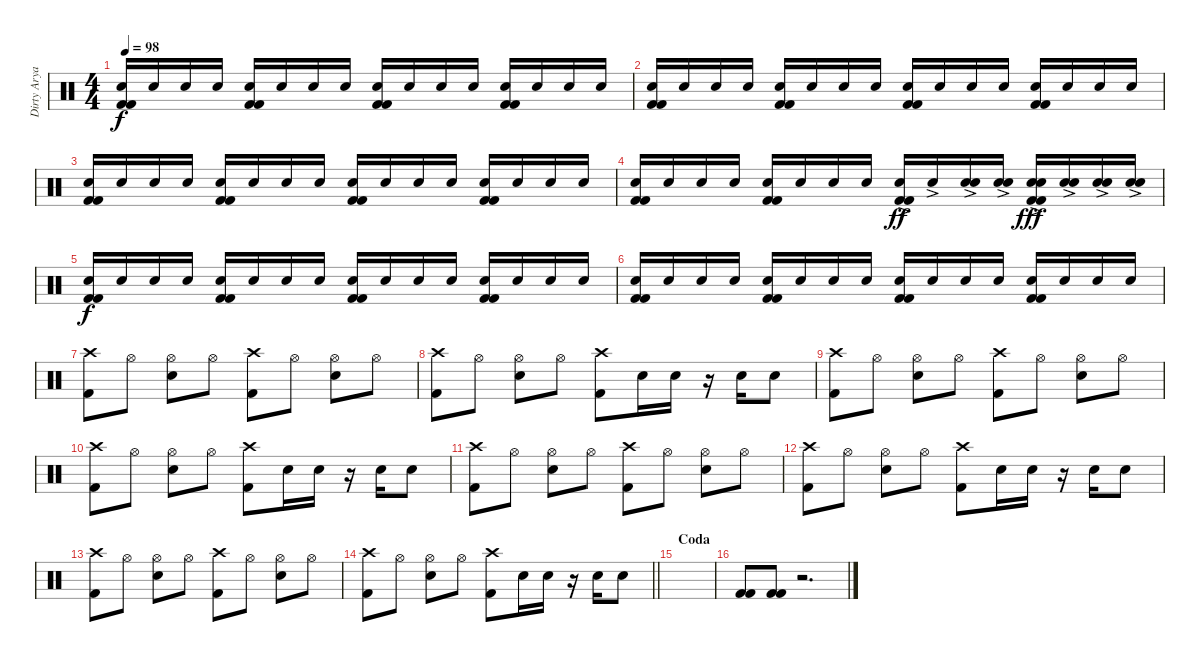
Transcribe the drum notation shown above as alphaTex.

\track ("Dirty Arya" "Dirty Arya") {instrument percussion}
\staff {score}
\articulation defaults
\ts (4 4)
\tempo 98
\clef neutral
\ks c
("Electric Snare (hit)" "Kick (hit) 2" "Kick (hit) 2").16{dy f volume 16} "Electric Snare (hit)".16 "Electric Snare (hit)".16 "Electric Snare (hit)".16 ("Electric Snare (hit)" "Kick (hit) 2" "Kick (hit) 2").16 "Electric Snare (hit)".16 "Electric Snare (hit)".16 "Electric Snare (hit)".16 ("Electric Snare (hit)" "Kick (hit) 2" "Kick (hit) 2").16 "Electric Snare (hit)".16 "Electric Snare (hit)".16 "Electric Snare (hit)".16 ("Electric Snare (hit)" "Kick (hit) 2" "Kick (hit) 2").16 "Electric Snare (hit)".16 "Electric Snare (hit)".16 "Electric Snare (hit)".16 |
("Electric Snare (hit)" "Kick (hit) 2" "Kick (hit) 2").16 "Electric Snare (hit)".16 "Electric Snare (hit)".16 "Electric Snare (hit)".16 ("Electric Snare (hit)" "Kick (hit) 2" "Kick (hit) 2").16 "Electric Snare (hit)".16 "Electric Snare (hit)".16 "Electric Snare (hit)".16 ("Electric Snare (hit)" "Kick (hit) 2" "Kick (hit) 2").16 "Electric Snare (hit)".16 "Electric Snare (hit)".16 "Electric Snare (hit)".16 ("Electric Snare (hit)" "Kick (hit) 2" "Kick (hit) 2").16 "Electric Snare (hit)".16 "Electric Snare (hit)".16 "Electric Snare (hit)".16 |
("Electric Snare (hit)" "Kick (hit) 2" "Kick (hit) 2").16 "Electric Snare (hit)".16 "Electric Snare (hit)".16 "Electric Snare (hit)".16 ("Electric Snare (hit)" "Kick (hit) 2" "Kick (hit) 2").16 "Electric Snare (hit)".16 "Electric Snare (hit)".16 "Electric Snare (hit)".16 ("Electric Snare (hit)" "Kick (hit) 2" "Kick (hit) 2").16 "Electric Snare (hit)".16 "Electric Snare (hit)".16 "Electric Snare (hit)".16 ("Electric Snare (hit)" "Kick (hit) 2" "Kick (hit) 2").16 "Electric Snare (hit)".16 "Electric Snare (hit)".16 "Electric Snare (hit)".16 |
("Electric Snare (hit)" "Kick (hit) 2" "Kick (hit) 2").16 "Electric Snare (hit)".16 "Electric Snare (hit)".16 "Electric Snare (hit)".16 ("Electric Snare (hit)" "Kick (hit) 2" "Kick (hit) 2").16 "Electric Snare (hit)".16 "Electric Snare (hit)".16 "Electric Snare (hit)".16 ("Electric Snare (hit)"{ac} "Kick (hit) 2" "Kick (hit) 2").16{dy ff} "Electric Snare (hit)"{ac}.16 ("Electric Snare (hit)" "Electric Snare (hit)"{ac}).16 ("Electric Snare (hit)" "Electric Snare (hit)"{ac}).16 ("Electric Snare (hit)" "Electric Snare (hit)"{ac} "Kick (hit) 2" "Kick (hit) 2").16{dy fff} ("Electric Snare (hit)"{ac} "Electric Snare (hit)"{ac}).16 ("Electric Snare (hit)"{ac} "Electric Snare (hit)"{ac}).16 ("Electric Snare (hit)"{ac} "Electric Snare (hit)"{ac}).16 |
("Electric Snare (hit)" "Kick (hit) 2" "Kick (hit) 2").16{dy f} "Electric Snare (hit)".16 "Electric Snare (hit)".16 "Electric Snare (hit)".16 ("Electric Snare (hit)" "Kick (hit) 2" "Kick (hit) 2").16 "Electric Snare (hit)".16 "Electric Snare (hit)".16 "Electric Snare (hit)".16 ("Electric Snare (hit)" "Kick (hit) 2" "Kick (hit) 2").16 "Electric Snare (hit)".16 "Electric Snare (hit)".16 "Electric Snare (hit)".16 ("Electric Snare (hit)" "Kick (hit) 2" "Kick (hit) 2").16 "Electric Snare (hit)".16 "Electric Snare (hit)".16 "Electric Snare (hit)".16 |
("Electric Snare (hit)" "Kick (hit) 2" "Kick (hit) 2").16 "Electric Snare (hit)".16 "Electric Snare (hit)".16 "Electric Snare (hit)".16 ("Electric Snare (hit)" "Kick (hit) 2" "Kick (hit) 2").16 "Electric Snare (hit)".16 "Electric Snare (hit)".16 "Electric Snare (hit)".16 ("Electric Snare (hit)" "Kick (hit) 2" "Kick (hit) 2").16 "Electric Snare (hit)".16 "Electric Snare (hit)".16 "Electric Snare (hit)".16 ("Electric Snare (hit)" "Kick (hit) 2" "Kick (hit) 2").16 "Electric Snare (hit)".16 "Electric Snare (hit)".16 "Electric Snare (hit)".16 |
("Crash high (hit)" "Kick (hit) 2").8 "Hi-Hat (open)".8 ("Hi-Hat (open)" "Electric Snare (hit)").8 "Hi-Hat (open)".8 ("Crash high (hit)" "Kick (hit) 2").8 "Hi-Hat (open)".8 ("Hi-Hat (open)" "Electric Snare (hit)").8 "Hi-Hat (open)".8 |
("Crash high (hit)" "Kick (hit) 2").8 "Hi-Hat (open)".8 ("Hi-Hat (open)" "Electric Snare (hit)").8 "Hi-Hat (open)".8 ("Crash high (hit)" "Kick (hit) 2").8 "Electric Snare (hit)".16 "Electric Snare (hit)".16 r.16 "Electric Snare (hit)".16 "Electric Snare (hit)".8 |
("Crash high (hit)" "Kick (hit) 2").8 "Hi-Hat (open)".8 ("Hi-Hat (open)" "Electric Snare (hit)").8 "Hi-Hat (open)".8 ("Crash high (hit)" "Kick (hit) 2").8 "Hi-Hat (open)".8 ("Hi-Hat (open)" "Electric Snare (hit)").8 "Hi-Hat (open)".8 |
("Crash high (hit)" "Kick (hit) 2").8 "Hi-Hat (open)".8 ("Hi-Hat (open)" "Electric Snare (hit)").8 "Hi-Hat (open)".8 ("Crash high (hit)" "Kick (hit) 2").8 "Electric Snare (hit)".16 "Electric Snare (hit)".16 r.16 "Electric Snare (hit)".16 "Electric Snare (hit)".8 |
("Crash high (hit)" "Kick (hit) 2").8 "Hi-Hat (open)".8 ("Hi-Hat (open)" "Electric Snare (hit)").8 "Hi-Hat (open)".8 ("Crash high (hit)" "Kick (hit) 2").8 "Hi-Hat (open)".8 ("Hi-Hat (open)" "Electric Snare (hit)").8 "Hi-Hat (open)".8 |
("Crash high (hit)" "Kick (hit) 2").8 "Hi-Hat (open)".8 ("Hi-Hat (open)" "Electric Snare (hit)").8 "Hi-Hat (open)".8 ("Crash high (hit)" "Kick (hit) 2").8 "Electric Snare (hit)".16 "Electric Snare (hit)".16 r.16 "Electric Snare (hit)".16 "Electric Snare (hit)".8 |
("Crash high (hit)" "Kick (hit) 2").8 "Hi-Hat (open)".8 ("Hi-Hat (open)" "Electric Snare (hit)").8 "Hi-Hat (open)".8 ("Crash high (hit)" "Kick (hit) 2").8 "Hi-Hat (open)".8 ("Hi-Hat (open)" "Electric Snare (hit)").8 "Hi-Hat (open)".8 |
\barLineRight lightlight
("Crash high (hit)" "Kick (hit) 2").8 "Hi-Hat (open)".8 ("Hi-Hat (open)" "Electric Snare (hit)").8 "Hi-Hat (open)".8 ("Crash high (hit)" "Kick (hit) 2").8 "Electric Snare (hit)".16 "Electric Snare (hit)".16 r.16 "Electric Snare (hit)".16 "Electric Snare (hit)".8 |
\section ("" "Coda")
|
("Kick (hit) 2" "Kick (hit) 2").8 ("Kick (hit) 2" "Kick (hit) 2").8 r.2{d}
